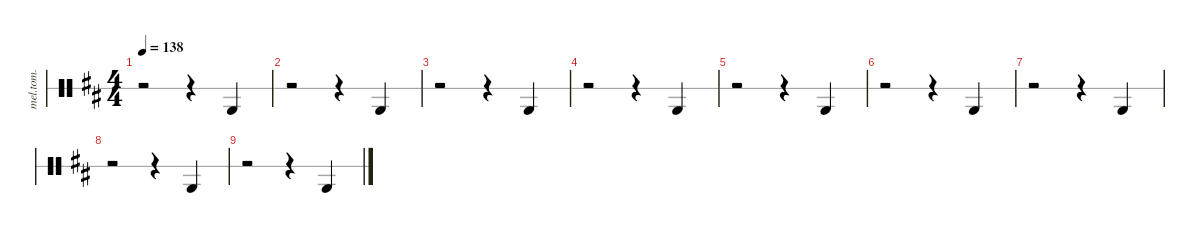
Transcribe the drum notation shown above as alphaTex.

\hideDynamics
\bracketExtendMode groupsimilarinstruments
\otherSystemsTrackNameOrientation horizontal
\track ("Melodic Tom" "mel.tom.") {instrument percussion}
\staff {score 1}
\articulation defaults
\ts (4 4)
\tempo 138
\clef neutral
\ks d
r.2{dy ff} r.4 "Low Tom (hit)"{acc forcenatural}.4 |
r.2 r.4 "Low Tom (hit)"{acc forcenatural}.4 |
r.2 r.4 "Low Tom (hit)"{acc forcenatural}.4 |
r.2 r.4 "Low Tom (hit)"{acc forcenatural}.4 |
r.2 r.4 "Low Tom (hit)"{acc forcenatural}.4 |
r.2 r.4 "Low Tom (hit)"{acc forcenatural}.4 |
r.2 r.4 "Low Tom (hit)"{acc forcenatural}.4 |
r.2 r.4 "Low Tom (hit)"{acc forcenatural}.4 |
r.2 r.4 "Low Tom (hit)"{acc forcenatural}.4
